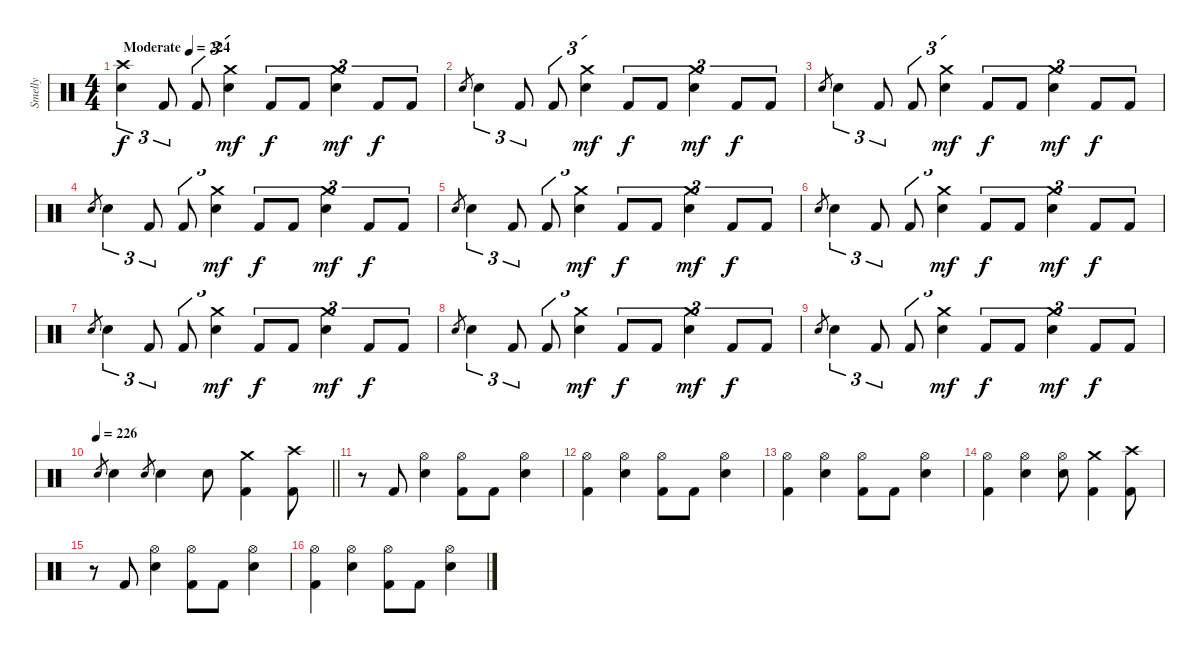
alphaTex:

\track ("Smelly" "Smelly") {instrument percussion}
\staff {score}
\articulation defaults
\ts (4 4)
\tempo (224 "Moderate")
\clef neutral
\ks c
("Crash high (hit)" "Electric Snare (hit)").4{tu (3 2) dy f} "Kick (hit) 2".8{tu (3 2)} "Kick (hit) 2".8{tu (3 2)} ("Crash medium (hit)" "Electric Snare (hit)").4{tu (3 2) dy mf} "Kick (hit) 2".8{tu (3 2) dy f} "Kick (hit) 2".8{tu (3 2)} ("Crash medium (hit)" "Electric Snare (hit)").4{tu (3 2) dy mf} "Kick (hit) 2".8{tu (3 2) dy f} "Kick (hit) 2".8{tu (3 2)} |
"Electric Snare (hit)".8{gr} "Electric Snare (hit)".4{tu (3 2)} "Kick (hit) 2".8{tu (3 2)} "Kick (hit) 2".8{tu (3 2)} ("Crash medium (hit)" "Electric Snare (hit)").4{tu (3 2) dy mf} "Kick (hit) 2".8{tu (3 2) dy f} "Kick (hit) 2".8{tu (3 2)} ("Crash medium (hit)" "Electric Snare (hit)").4{tu (3 2) dy mf} "Kick (hit) 2".8{tu (3 2) dy f} "Kick (hit) 2".8{tu (3 2)} |
"Electric Snare (hit)".8{gr} "Electric Snare (hit)".4{tu (3 2)} "Kick (hit) 2".8{tu (3 2)} "Kick (hit) 2".8{tu (3 2)} ("Crash medium (hit)" "Electric Snare (hit)").4{tu (3 2) dy mf} "Kick (hit) 2".8{tu (3 2) dy f} "Kick (hit) 2".8{tu (3 2)} ("Crash medium (hit)" "Electric Snare (hit)").4{tu (3 2) dy mf} "Kick (hit) 2".8{tu (3 2) dy f} "Kick (hit) 2".8{tu (3 2)} |
"Electric Snare (hit)".8{gr} "Electric Snare (hit)".4{tu (3 2)} "Kick (hit) 2".8{tu (3 2)} "Kick (hit) 2".8{tu (3 2)} ("Crash medium (hit)" "Electric Snare (hit)").4{tu (3 2) dy mf} "Kick (hit) 2".8{tu (3 2) dy f} "Kick (hit) 2".8{tu (3 2)} ("Crash medium (hit)" "Electric Snare (hit)").4{tu (3 2) dy mf} "Kick (hit) 2".8{tu (3 2) dy f} "Kick (hit) 2".8{tu (3 2)} |
"Electric Snare (hit)".8{gr} "Electric Snare (hit)".4{tu (3 2)} "Kick (hit) 2".8{tu (3 2)} "Kick (hit) 2".8{tu (3 2)} ("Crash medium (hit)" "Electric Snare (hit)").4{tu (3 2) dy mf} "Kick (hit) 2".8{tu (3 2) dy f} "Kick (hit) 2".8{tu (3 2)} ("Crash medium (hit)" "Electric Snare (hit)").4{tu (3 2) dy mf} "Kick (hit) 2".8{tu (3 2) dy f} "Kick (hit) 2".8{tu (3 2)} |
"Electric Snare (hit)".8{gr} "Electric Snare (hit)".4{tu (3 2)} "Kick (hit) 2".8{tu (3 2)} "Kick (hit) 2".8{tu (3 2)} ("Crash medium (hit)" "Electric Snare (hit)").4{tu (3 2) dy mf} "Kick (hit) 2".8{tu (3 2) dy f} "Kick (hit) 2".8{tu (3 2)} ("Crash medium (hit)" "Electric Snare (hit)").4{tu (3 2) dy mf} "Kick (hit) 2".8{tu (3 2) dy f} "Kick (hit) 2".8{tu (3 2)} |
"Electric Snare (hit)".8{gr} "Electric Snare (hit)".4{tu (3 2)} "Kick (hit) 2".8{tu (3 2)} "Kick (hit) 2".8{tu (3 2)} ("Crash medium (hit)" "Electric Snare (hit)").4{tu (3 2) dy mf} "Kick (hit) 2".8{tu (3 2) dy f} "Kick (hit) 2".8{tu (3 2)} ("Crash medium (hit)" "Electric Snare (hit)").4{tu (3 2) dy mf} "Kick (hit) 2".8{tu (3 2) dy f} "Kick (hit) 2".8{tu (3 2)} |
"Electric Snare (hit)".8{gr} "Electric Snare (hit)".4{tu (3 2)} "Kick (hit) 2".8{tu (3 2)} "Kick (hit) 2".8{tu (3 2)} ("Crash medium (hit)" "Electric Snare (hit)").4{tu (3 2) dy mf} "Kick (hit) 2".8{tu (3 2) dy f} "Kick (hit) 2".8{tu (3 2)} ("Crash medium (hit)" "Electric Snare (hit)").4{tu (3 2) dy mf} "Kick (hit) 2".8{tu (3 2) dy f} "Kick (hit) 2".8{tu (3 2)} |
"Electric Snare (hit)".8{gr} "Electric Snare (hit)".4{tu (3 2)} "Kick (hit) 2".8{tu (3 2)} "Kick (hit) 2".8{tu (3 2)} ("Crash medium (hit)" "Electric Snare (hit)").4{tu (3 2) dy mf} "Kick (hit) 2".8{tu (3 2) dy f} "Kick (hit) 2".8{tu (3 2)} ("Crash medium (hit)" "Electric Snare (hit)").4{tu (3 2) dy mf} "Kick (hit) 2".8{tu (3 2) dy f} "Kick (hit) 2".8{tu (3 2)} |
\tempo 226
\barLineRight lightlight "Electric Snare (hit)".8{gr} "Electric Snare (hit)".4 "Electric Snare (hit)".8{gr} "Electric Snare (hit)".4 "Electric Snare (hit)".8
("Crash medium (hit)" "Kick (hit) 2").4 ("Crash high (hit)" "Kick (hit) 2").8 |
\section ("" "")
r.8 "Kick (hit) 2".8 ("Hi-Hat (open)" "Electric Snare (hit)").4 ("Hi-Hat (open)" "Kick (hit) 2").8 "Kick (hit) 2".8 ("Hi-Hat (open)" "Electric Snare (hit)").4 |
("Hi-Hat (open)" "Kick (hit) 2").4 ("Hi-Hat (open)" "Electric Snare (hit)").4 ("Hi-Hat (open)" "Kick (hit) 2").8 "Kick (hit) 2".8 ("Hi-Hat (open)" "Electric Snare (hit)").4 |
("Hi-Hat (open)" "Kick (hit) 2").4 ("Hi-Hat (open)" "Electric Snare (hit)").4 ("Hi-Hat (open)" "Kick (hit) 2").8 "Kick (hit) 2".8 ("Hi-Hat (open)" "Electric Snare (hit)").4 |
("Hi-Hat (open)" "Kick (hit) 2").4 ("Hi-Hat (open)" "Electric Snare (hit)").4 ("Hi-Hat (open)" "Electric Snare (hit)").8 ("Crash medium (hit)" "Kick (hit) 2").4 ("Crash high (hit)" "Kick (hit) 2").8 |
r.8 "Kick (hit) 2".8 ("Hi-Hat (open)" "Electric Snare (hit)").4 ("Hi-Hat (open)" "Kick (hit) 2").8 "Kick (hit) 2".8 ("Hi-Hat (open)" "Electric Snare (hit)").4 |
("Hi-Hat (open)" "Kick (hit) 2").4 ("Hi-Hat (open)" "Electric Snare (hit)").4 ("Hi-Hat (open)" "Kick (hit) 2").8 "Kick (hit) 2".8 ("Hi-Hat (open)" "Electric Snare (hit)").4
